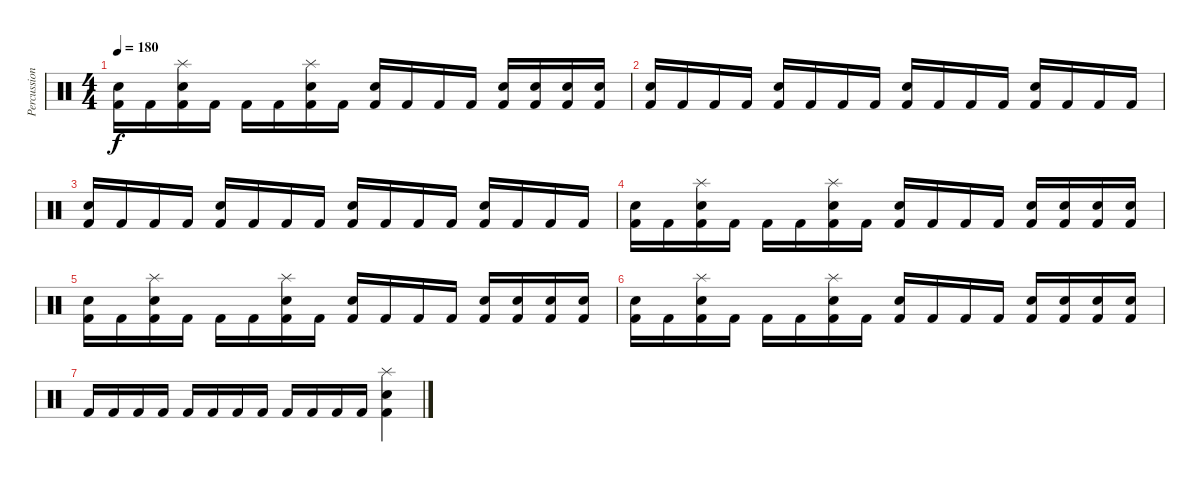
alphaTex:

\track ("Percussion" "Percussion") {instrument percussion}
\staff {score}
\articulation defaults
\ts (4 4)
\tempo 180
\clef neutral
\ks c
("Snare (hit) 2" "Kick (hit) 2").16{dy f} "Kick (hit) 2".16 ("Snare (hit) 2" "Splash (hit)" "Kick (hit) 2").16 "Kick (hit) 2".16 "Kick (hit) 2".16 "Kick (hit) 2".16 ("Snare (hit) 2" "Splash (hit)" "Kick (hit) 2").16 "Kick (hit) 2".16 ("Snare (hit) 2" "Kick (hit) 2").16 "Kick (hit) 2".16 "Kick (hit) 2".16 "Kick (hit) 2".16 ("Snare (hit) 2" "Kick (hit) 2").16 ("Snare (hit) 2" "Kick (hit) 2").16 ("Snare (hit) 2" "Kick (hit) 2").16 ("Snare (hit) 2" "Kick (hit) 2").16 |
("Snare (hit) 2" "Kick (hit) 2").16 "Kick (hit) 2".16 "Kick (hit) 2".16 "Kick (hit) 2".16 ("Snare (hit) 2" "Kick (hit) 2").16 "Kick (hit) 2".16 "Kick (hit) 2".16 "Kick (hit) 2".16 ("Snare (hit) 2" "Kick (hit) 2").16 "Kick (hit) 2".16 "Kick (hit) 2".16 "Kick (hit) 2".16 ("Snare (hit) 2" "Kick (hit) 2").16 "Kick (hit) 2".16 "Kick (hit) 2".16 "Kick (hit) 2".16 |
("Snare (hit) 2" "Kick (hit) 2").16 "Kick (hit) 2".16 "Kick (hit) 2".16 "Kick (hit) 2".16 ("Snare (hit) 2" "Kick (hit) 2").16 "Kick (hit) 2".16 "Kick (hit) 2".16 "Kick (hit) 2".16 ("Snare (hit) 2" "Kick (hit) 2").16 "Kick (hit) 2".16 "Kick (hit) 2".16 "Kick (hit) 2".16 ("Snare (hit) 2" "Kick (hit) 2").16 "Kick (hit) 2".16 "Kick (hit) 2".16 "Kick (hit) 2".16 |
("Snare (hit) 2" "Kick (hit) 2").16 "Kick (hit) 2".16 ("Snare (hit) 2" "Splash (hit)" "Kick (hit) 2").16 "Kick (hit) 2".16 "Kick (hit) 2".16 "Kick (hit) 2".16 ("Snare (hit) 2" "Splash (hit)" "Kick (hit) 2").16 "Kick (hit) 2".16 ("Snare (hit) 2" "Kick (hit) 2").16 "Kick (hit) 2".16 "Kick (hit) 2".16 "Kick (hit) 2".16 ("Snare (hit) 2" "Kick (hit) 2").16 ("Snare (hit) 2" "Kick (hit) 2").16 ("Snare (hit) 2" "Kick (hit) 2").16 ("Snare (hit) 2" "Kick (hit) 2").16 |
("Snare (hit) 2" "Kick (hit) 2").16 "Kick (hit) 2".16 ("Snare (hit) 2" "Splash (hit)" "Kick (hit) 2").16 "Kick (hit) 2".16 "Kick (hit) 2".16 "Kick (hit) 2".16 ("Snare (hit) 2" "Splash (hit)" "Kick (hit) 2").16 "Kick (hit) 2".16 ("Snare (hit) 2" "Kick (hit) 2").16 "Kick (hit) 2".16 "Kick (hit) 2".16 "Kick (hit) 2".16 ("Snare (hit) 2" "Kick (hit) 2").16 ("Snare (hit) 2" "Kick (hit) 2").16 ("Snare (hit) 2" "Kick (hit) 2").16 ("Snare (hit) 2" "Kick (hit) 2").16 |
("Snare (hit) 2" "Kick (hit) 2").16 "Kick (hit) 2".16 ("Snare (hit) 2" "Splash (hit)" "Kick (hit) 2").16 "Kick (hit) 2".16 "Kick (hit) 2".16 "Kick (hit) 2".16 ("Snare (hit) 2" "Splash (hit)" "Kick (hit) 2").16 "Kick (hit) 2".16 ("Snare (hit) 2" "Kick (hit) 2").16 "Kick (hit) 2".16 "Kick (hit) 2".16 "Kick (hit) 2".16 ("Snare (hit) 2" "Kick (hit) 2").16 ("Snare (hit) 2" "Kick (hit) 2").16 ("Snare (hit) 2" "Kick (hit) 2").16 ("Snare (hit) 2" "Kick (hit) 2").16 |
"Kick (hit) 2".16 "Kick (hit) 2".16 "Kick (hit) 2".16 "Kick (hit) 2".16 "Kick (hit) 2".16 "Kick (hit) 2".16 "Kick (hit) 2".16 "Kick (hit) 2".16 "Kick (hit) 2".16 "Kick (hit) 2".16 "Kick (hit) 2".16 "Kick (hit) 2".16 ("Splash (hit)" "Snare (hit) 2" "Kick (hit) 2").4
